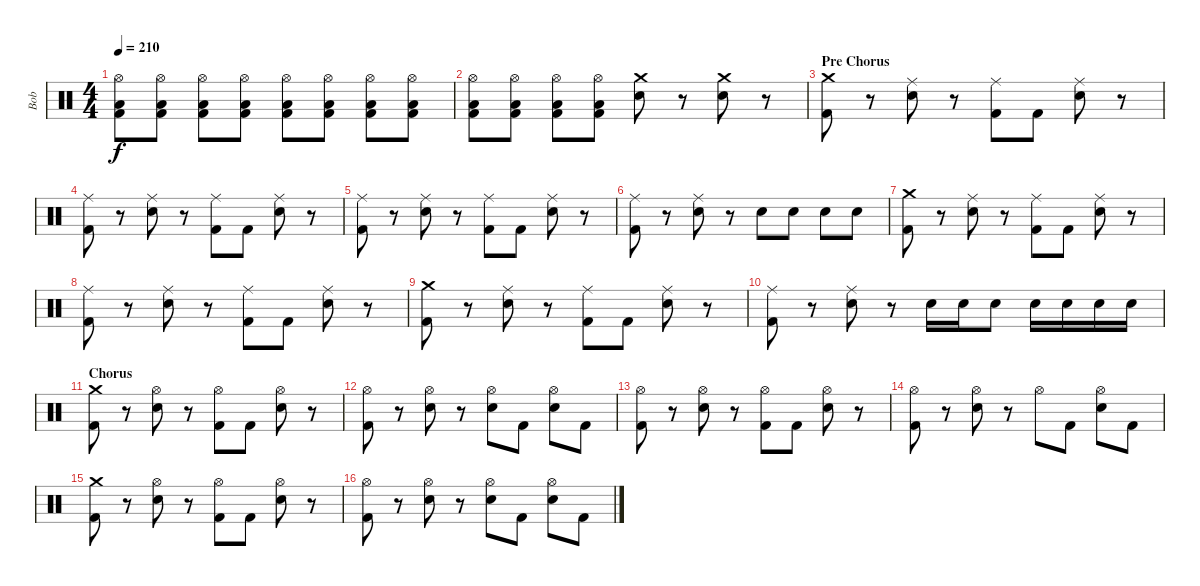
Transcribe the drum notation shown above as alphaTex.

\track ("Bob" "Bob") {instrument percussion}
\staff {score}
\articulation defaults
\ts (4 4)
\tempo 210
\clef neutral
\ks c
("Hi-Hat (open)" "Low Floor Tom (hit)" "Kick (hit) 2").8{dy f} ("Hi-Hat (open)" "Low Floor Tom (hit)" "Kick (hit) 2").8 ("Hi-Hat (open)" "Low Floor Tom (hit)" "Kick (hit) 2").8 ("Hi-Hat (open)" "Low Floor Tom (hit)" "Kick (hit) 2").8 ("Hi-Hat (open)" "Low Floor Tom (hit)" "Kick (hit) 2").8 ("Hi-Hat (open)" "Low Floor Tom (hit)" "Kick (hit) 2").8 ("Hi-Hat (open)" "Low Floor Tom (hit)" "Kick (hit) 2").8 ("Hi-Hat (open)" "Low Floor Tom (hit)" "Kick (hit) 2").8 |
("Hi-Hat (open)" "Low Floor Tom (hit)" "Kick (hit) 2").8 ("Hi-Hat (open)" "Low Floor Tom (hit)" "Kick (hit) 2").8 ("Hi-Hat (open)" "Low Floor Tom (hit)" "Kick (hit) 2").8 ("Hi-Hat (open)" "Low Floor Tom (hit)" "Kick (hit) 2").8 ("Crash medium (hit)" "Electric Snare (hit)").8 r.8 ("Crash medium (hit)" "Electric Snare (hit)").8 r.8 |
\section ("" "Pre Chorus")
("Crash medium (hit)" "Kick (hit) 2").8 r.8 ("Ride (middle)" "Electric Snare (hit)").8 r.8 ("Ride (middle)" "Kick (hit) 2").8 "Kick (hit) 2".8 ("Ride (middle)" "Electric Snare (hit)").8 r.8 |
("Ride (middle)" "Kick (hit) 2").8 r.8 ("Ride (middle)" "Electric Snare (hit)").8 r.8 ("Ride (middle)" "Kick (hit) 2").8 "Kick (hit) 2".8 ("Ride (middle)" "Electric Snare (hit)").8 r.8 |
("Ride (middle)" "Kick (hit) 2").8 r.8 ("Ride (middle)" "Electric Snare (hit)").8 r.8 ("Ride (middle)" "Kick (hit) 2").8 "Kick (hit) 2".8 ("Ride (middle)" "Electric Snare (hit)").8 r.8 |
("Ride (middle)" "Kick (hit) 2").8 r.8 ("Ride (middle)" "Electric Snare (hit)").8 r.8 "Electric Snare (hit)".8 "Electric Snare (hit)".8 "Electric Snare (hit)".8 "Electric Snare (hit)".8 |
("Crash medium (hit)" "Kick (hit) 2").8 r.8 ("Ride (middle)" "Electric Snare (hit)").8 r.8 ("Ride (middle)" "Kick (hit) 2").8 "Kick (hit) 2".8 ("Ride (middle)" "Electric Snare (hit)").8 r.8 |
("Ride (middle)" "Kick (hit) 2").8 r.8 ("Ride (middle)" "Electric Snare (hit)").8 r.8 ("Ride (middle)" "Kick (hit) 2").8 "Kick (hit) 2".8 ("Ride (middle)" "Electric Snare (hit)").8 r.8 |
("Crash medium (hit)" "Kick (hit) 2").8 r.8 ("Ride (middle)" "Electric Snare (hit)").8 r.8 ("Ride (middle)" "Kick (hit) 2").8 "Kick (hit) 2".8 ("Ride (middle)" "Electric Snare (hit)").8 r.8 |
("Ride (middle)" "Kick (hit) 2").8 r.8 ("Ride (middle)" "Electric Snare (hit)").8 r.8 "Electric Snare (hit)".16 "Electric Snare (hit)".16 "Electric Snare (hit)".8 "Electric Snare (hit)".16 "Electric Snare (hit)".16 "Electric Snare (hit)".16 "Electric Snare (hit)".16 |
\section ("" "Chorus")
("Crash medium (hit)" "Kick (hit) 2").8 r.8 ("Hi-Hat (open)" "Electric Snare (hit)").8 r.8 ("Hi-Hat (open)" "Kick (hit) 2").8 "Kick (hit) 2".8 ("Hi-Hat (open)" "Electric Snare (hit)").8 r.8 |
("Hi-Hat (open)" "Kick (hit) 2").8 r.8 ("Hi-Hat (open)" "Electric Snare (hit)").8 r.8 ("Hi-Hat (open)" "Electric Snare (hit)").8 "Kick (hit) 2".8 ("Hi-Hat (open)" "Electric Snare (hit)").8 "Kick (hit) 2".8 |
("Hi-Hat (open)" "Kick (hit) 2").8 r.8 ("Hi-Hat (open)" "Electric Snare (hit)").8 r.8 ("Hi-Hat (open)" "Kick (hit) 2").8 "Kick (hit) 2".8 ("Hi-Hat (open)" "Electric Snare (hit)").8 r.8 |
("Hi-Hat (open)" "Kick (hit) 2").8 r.8 ("Hi-Hat (open)" "Electric Snare (hit)").8 r.8 "Hi-Hat (open)".8 "Kick (hit) 2".8 ("Hi-Hat (open)" "Electric Snare (hit)").8 "Kick (hit) 2".8 |
("Crash medium (hit)" "Kick (hit) 2").8 r.8 ("Hi-Hat (open)" "Electric Snare (hit)").8 r.8 ("Hi-Hat (open)" "Kick (hit) 2").8 "Kick (hit) 2".8 ("Hi-Hat (open)" "Electric Snare (hit)").8 r.8 |
("Hi-Hat (open)" "Kick (hit) 2").8 r.8 ("Hi-Hat (open)" "Electric Snare (hit)").8 r.8 ("Hi-Hat (open)" "Electric Snare (hit)").8 "Kick (hit) 2".8 ("Hi-Hat (open)" "Electric Snare (hit)").8 "Kick (hit) 2".8
